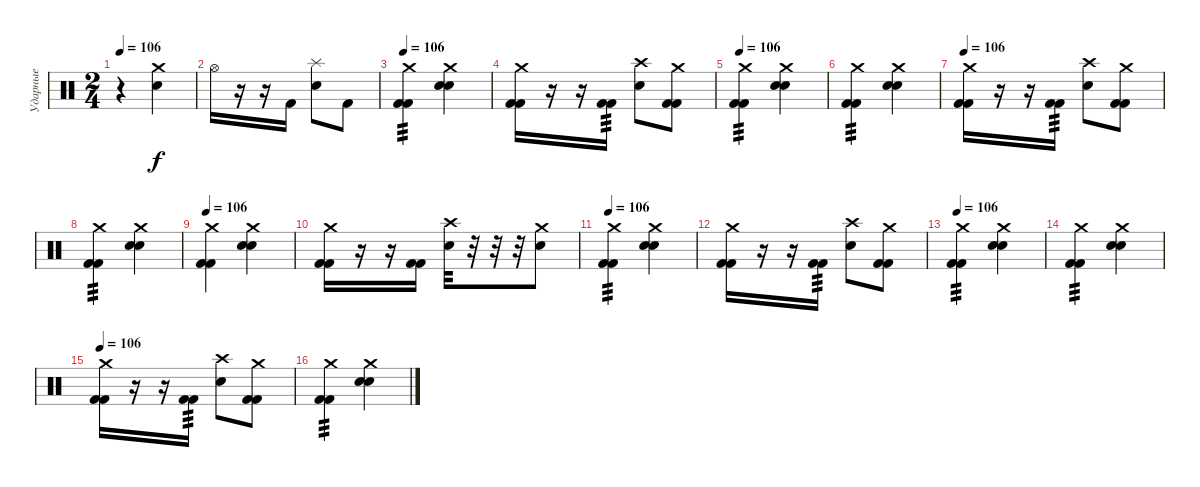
\track ("Ударные" "Ударные") {instrument percussion}
\staff {score}
\articulation defaults
\ts (2 4)
\tempo 106
\clef neutral
\ks c
r.4{dy f} ("Crash medium (hit)" "Electric Snare (hit)").4 |
"Hi-Hat (open)".16 r.16 r.16 "Kick (hit) 2".16 ("Splash (hit)" "Electric Snare (hit)").8 "Kick (hit) 2".8 |
\tempo 106
("Crash medium (hit)" "Kick (hit) 2" "Kick (hit) 2").4{tp 3} ("Crash medium (hit)" "Electric Snare (hit)" "Electric Snare (hit)").4 |
("Crash medium (hit)" "Kick (hit) 2" "Kick (hit) 2").16 r.16 r.16 ("Kick (hit) 2" "Kick (hit) 2").16{tp 3} ("Crash high (hit)" "Electric Snare (hit)").8 ("Crash medium (hit)" "Kick (hit) 2" "Kick (hit) 2").8 |
\tempo 106
("Crash medium (hit)" "Kick (hit) 2" "Kick (hit) 2").4{tp 3} ("Crash medium (hit)" "Electric Snare (hit)" "Electric Snare (hit)").4 |
("Crash medium (hit)" "Kick (hit) 2" "Kick (hit) 2").4{tp 3} ("Crash medium (hit)" "Electric Snare (hit)" "Electric Snare (hit)").4 |
\tempo 106
("Crash medium (hit)" "Kick (hit) 2" "Kick (hit) 2").16 r.16 r.16 ("Kick (hit) 2" "Kick (hit) 2").16{tp 3} ("Crash high (hit)" "Electric Snare (hit)").8 ("Crash medium (hit)" "Kick (hit) 2" "Kick (hit) 2").8 |
("Crash medium (hit)" "Kick (hit) 2" "Kick (hit) 2").4{tp 3} ("Crash medium (hit)" "Electric Snare (hit)" "Electric Snare (hit)").4 |
\tempo 106
("Crash medium (hit)" "Kick (hit) 2" "Kick (hit) 2").4 ("Crash medium (hit)" "Electric Snare (hit)" "Electric Snare (hit)").4 |
("Crash medium (hit)" "Kick (hit) 2" "Kick (hit) 2").16 r.16 r.16 ("Kick (hit) 2" "Kick (hit) 2").16 ("Crash high (hit)" "Electric Snare (hit)").32 r.32 r.32 r.32 ("Crash medium (hit)" "Electric Snare (hit)").8 |
\tempo 106
("Crash medium (hit)" "Kick (hit) 2" "Kick (hit) 2").4{tp 3} ("Crash medium (hit)" "Electric Snare (hit)" "Electric Snare (hit)").4 |
("Crash medium (hit)" "Kick (hit) 2" "Kick (hit) 2").16 r.16 r.16 ("Kick (hit) 2" "Kick (hit) 2").16{tp 3} ("Crash high (hit)" "Electric Snare (hit)").8 ("Crash medium (hit)" "Kick (hit) 2" "Kick (hit) 2").8 |
\tempo 106
("Crash medium (hit)" "Kick (hit) 2" "Kick (hit) 2").4{tp 3} ("Crash medium (hit)" "Electric Snare (hit)" "Electric Snare (hit)").4 |
("Crash medium (hit)" "Kick (hit) 2" "Kick (hit) 2").4{tp 3} ("Crash medium (hit)" "Electric Snare (hit)" "Electric Snare (hit)").4 |
\tempo 106
("Crash medium (hit)" "Kick (hit) 2" "Kick (hit) 2").16 r.16 r.16 ("Kick (hit) 2" "Kick (hit) 2").16{tp 3} ("Crash high (hit)" "Electric Snare (hit)").8 ("Crash medium (hit)" "Kick (hit) 2" "Kick (hit) 2").8 |
("Crash medium (hit)" "Kick (hit) 2" "Kick (hit) 2").4{tp 3} ("Crash medium (hit)" "Electric Snare (hit)" "Electric Snare (hit)").4
